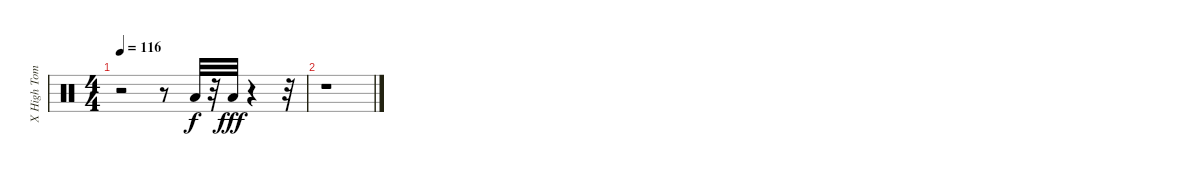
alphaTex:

\track ("X High Tom          " "X High Tom") {instrument percussion}
\staff {score}
\articulation defaults
\ts (4 4)
\tempo 116
\clef neutral
\ks c
r.2{dy fff} r.8 "Low Tom (hit)".32{dy f} r.32 "Low Tom (hit)".32{dy fff} r.4 r.32 |
r.1
